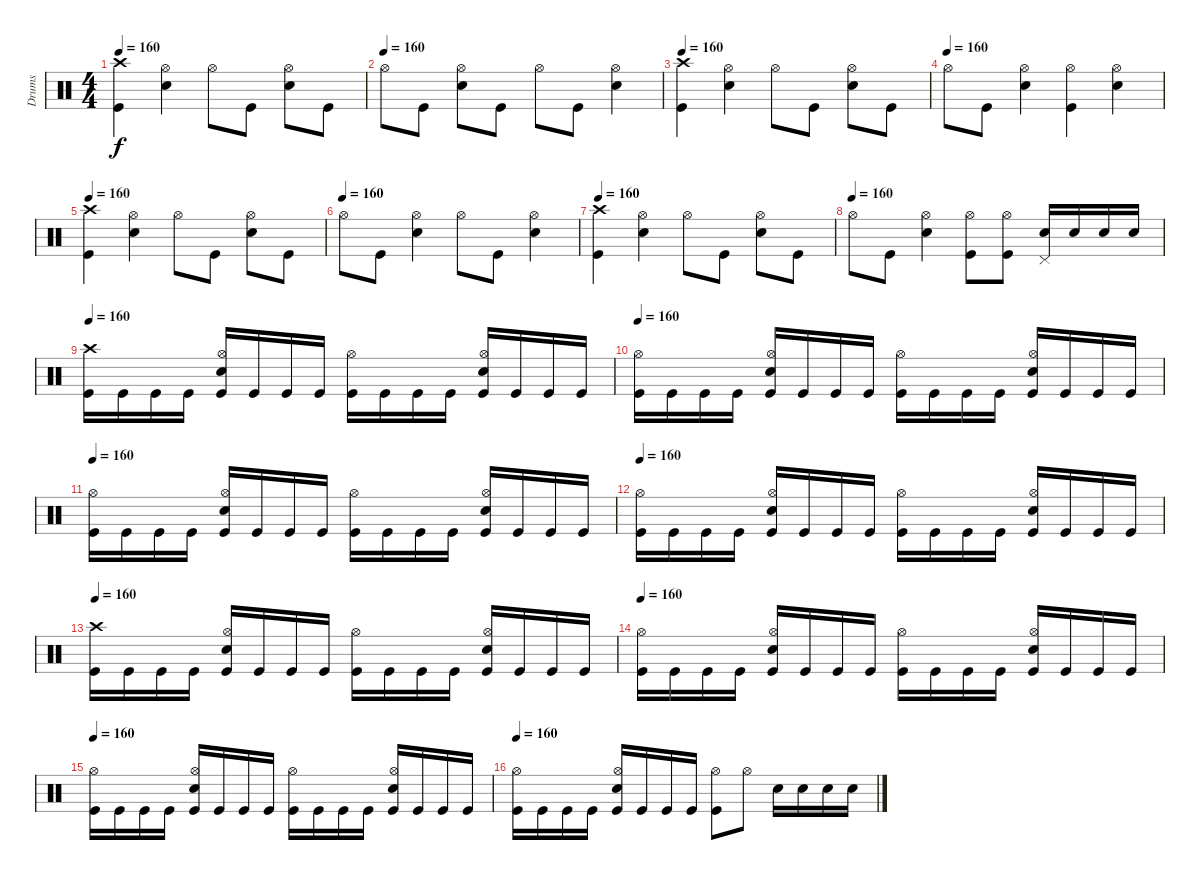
\track ("Drums" "Drums") {instrument percussion}
\staff {score}
\articulation defaults
\ts (4 4)
\tempo 160
\clef neutral
\ks c
("Crash high (hit)" "Kick (hit)").4{dy f} ("Hi-Hat (open)" "Electric Snare (hit)").4 "Hi-Hat (open)".8 "Kick (hit)".8 ("Hi-Hat (open)" "Electric Snare (hit)").8 "Kick (hit)".8 |
\tempo (160)
"Hi-Hat (open)".8 "Kick (hit)".8 ("Hi-Hat (open)" "Electric Snare (hit)").8 "Kick (hit)".8 "Hi-Hat (open)".8 "Kick (hit)".8 ("Hi-Hat (open)" "Electric Snare (hit)").4 |
\tempo 160
("Crash high (hit)" "Kick (hit)").4 ("Hi-Hat (open)" "Electric Snare (hit)").4 "Hi-Hat (open)".8 "Kick (hit)".8 ("Hi-Hat (open)" "Electric Snare (hit)").8 "Kick (hit)".8 |
\tempo (160)
"Hi-Hat (open)".8 "Kick (hit)".8 ("Hi-Hat (open)" "Electric Snare (hit)").4 ("Hi-Hat (open)" "Kick (hit)").4 ("Hi-Hat (open)" "Electric Snare (hit)").4 |
\tempo 160
("Crash high (hit)" "Kick (hit)").4 ("Hi-Hat (open)" "Electric Snare (hit)").4 "Hi-Hat (open)".8 "Kick (hit)".8 ("Hi-Hat (open)" "Electric Snare (hit)").8 "Kick (hit)".8 |
\tempo (160)
"Hi-Hat (open)".8 "Kick (hit)".8 ("Hi-Hat (open)" "Electric Snare (hit)").4 "Hi-Hat (open)".8 "Kick (hit)".8 ("Hi-Hat (open)" "Electric Snare (hit)").4 |
\tempo 160
("Crash high (hit)" "Kick (hit)").4 ("Hi-Hat (open)" "Electric Snare (hit)").4 "Hi-Hat (open)".8 "Kick (hit)".8 ("Hi-Hat (open)" "Electric Snare (hit)").8 "Kick (hit)".8 |
\tempo (160)
"Hi-Hat (open)".8 "Kick (hit)".8 ("Hi-Hat (open)" "Electric Snare (hit)").4 ("Hi-Hat (open)" "Kick (hit)").8 ("Hi-Hat (open)" "Kick (hit)").8 ("Electric Snare (hit)" "Pedal Hi-Hat (hit)").16 "Electric Snare (hit)".16 "Electric Snare (hit)".16 "Electric Snare (hit)".16 |
\tempo 160
("Crash high (hit)" "Kick (hit)").16 "Kick (hit)".16 "Kick (hit)".16 "Kick (hit)".16 ("Hi-Hat (open)" "Electric Snare (hit)" "Kick (hit)").16 "Kick (hit)".16 "Kick (hit)".16 "Kick (hit)".16 ("Hi-Hat (open)" "Kick (hit)").16 "Kick (hit)".16 "Kick (hit)".16 "Kick (hit)".16 ("Hi-Hat (open)" "Electric Snare (hit)" "Kick (hit)").16 "Kick (hit)".16 "Kick (hit)".16 "Kick (hit)".16 |
\tempo 160
("Hi-Hat (open)" "Kick (hit)").16 "Kick (hit)".16 "Kick (hit)".16 "Kick (hit)".16 ("Hi-Hat (open)" "Electric Snare (hit)" "Kick (hit)").16 "Kick (hit)".16 "Kick (hit)".16 "Kick (hit)".16 ("Hi-Hat (open)" "Kick (hit)").16 "Kick (hit)".16 "Kick (hit)".16 "Kick (hit)".16 ("Hi-Hat (open)" "Electric Snare (hit)" "Kick (hit)").16 "Kick (hit)".16 "Kick (hit)".16 "Kick (hit)".16 |
\tempo 160
("Hi-Hat (open)" "Kick (hit)").16 "Kick (hit)".16 "Kick (hit)".16 "Kick (hit)".16 ("Hi-Hat (open)" "Electric Snare (hit)" "Kick (hit)").16 "Kick (hit)".16 "Kick (hit)".16 "Kick (hit)".16 ("Hi-Hat (open)" "Kick (hit)").16 "Kick (hit)".16 "Kick (hit)".16 "Kick (hit)".16 ("Hi-Hat (open)" "Electric Snare (hit)" "Kick (hit)").16 "Kick (hit)".16 "Kick (hit)".16 "Kick (hit)".16 |
\tempo 160
("Hi-Hat (open)" "Kick (hit)").16 "Kick (hit)".16 "Kick (hit)".16 "Kick (hit)".16 ("Hi-Hat (open)" "Electric Snare (hit)" "Kick (hit)").16 "Kick (hit)".16 "Kick (hit)".16 "Kick (hit)".16 ("Hi-Hat (open)" "Kick (hit)").16 "Kick (hit)".16 "Kick (hit)".16 "Kick (hit)".16 ("Hi-Hat (open)" "Electric Snare (hit)" "Kick (hit)").16 "Kick (hit)".16 "Kick (hit)".16 "Kick (hit)".16 |
\tempo 160
("Crash high (hit)" "Kick (hit)").16 "Kick (hit)".16 "Kick (hit)".16 "Kick (hit)".16 ("Hi-Hat (open)" "Electric Snare (hit)" "Kick (hit)").16 "Kick (hit)".16 "Kick (hit)".16 "Kick (hit)".16 ("Hi-Hat (open)" "Kick (hit)").16 "Kick (hit)".16 "Kick (hit)".16 "Kick (hit)".16 ("Hi-Hat (open)" "Electric Snare (hit)" "Kick (hit)").16 "Kick (hit)".16 "Kick (hit)".16 "Kick (hit)".16 |
\tempo 160
("Hi-Hat (open)" "Kick (hit)").16 "Kick (hit)".16 "Kick (hit)".16 "Kick (hit)".16 ("Hi-Hat (open)" "Electric Snare (hit)" "Kick (hit)").16 "Kick (hit)".16 "Kick (hit)".16 "Kick (hit)".16 ("Hi-Hat (open)" "Kick (hit)").16 "Kick (hit)".16 "Kick (hit)".16 "Kick (hit)".16 ("Hi-Hat (open)" "Electric Snare (hit)" "Kick (hit)").16 "Kick (hit)".16 "Kick (hit)".16 "Kick (hit)".16 |
\tempo 160
("Hi-Hat (open)" "Kick (hit)").16 "Kick (hit)".16 "Kick (hit)".16 "Kick (hit)".16 ("Hi-Hat (open)" "Electric Snare (hit)" "Kick (hit)").16 "Kick (hit)".16 "Kick (hit)".16 "Kick (hit)".16 ("Hi-Hat (open)" "Kick (hit)").16 "Kick (hit)".16 "Kick (hit)".16 "Kick (hit)".16 ("Hi-Hat (open)" "Electric Snare (hit)" "Kick (hit)").16 "Kick (hit)".16 "Kick (hit)".16 "Kick (hit)".16 |
\tempo 160
("Hi-Hat (open)" "Kick (hit)").16 "Kick (hit)".16 "Kick (hit)".16 "Kick (hit)".16 ("Hi-Hat (open)" "Electric Snare (hit)" "Kick (hit)").16 "Kick (hit)".16 "Kick (hit)".16 "Kick (hit)".16 ("Hi-Hat (open)" "Kick (hit)").8 "Hi-Hat (open)".8 "Electric Snare (hit)".16 "Electric Snare (hit)".16 "Electric Snare (hit)".16 "Electric Snare (hit)".16
